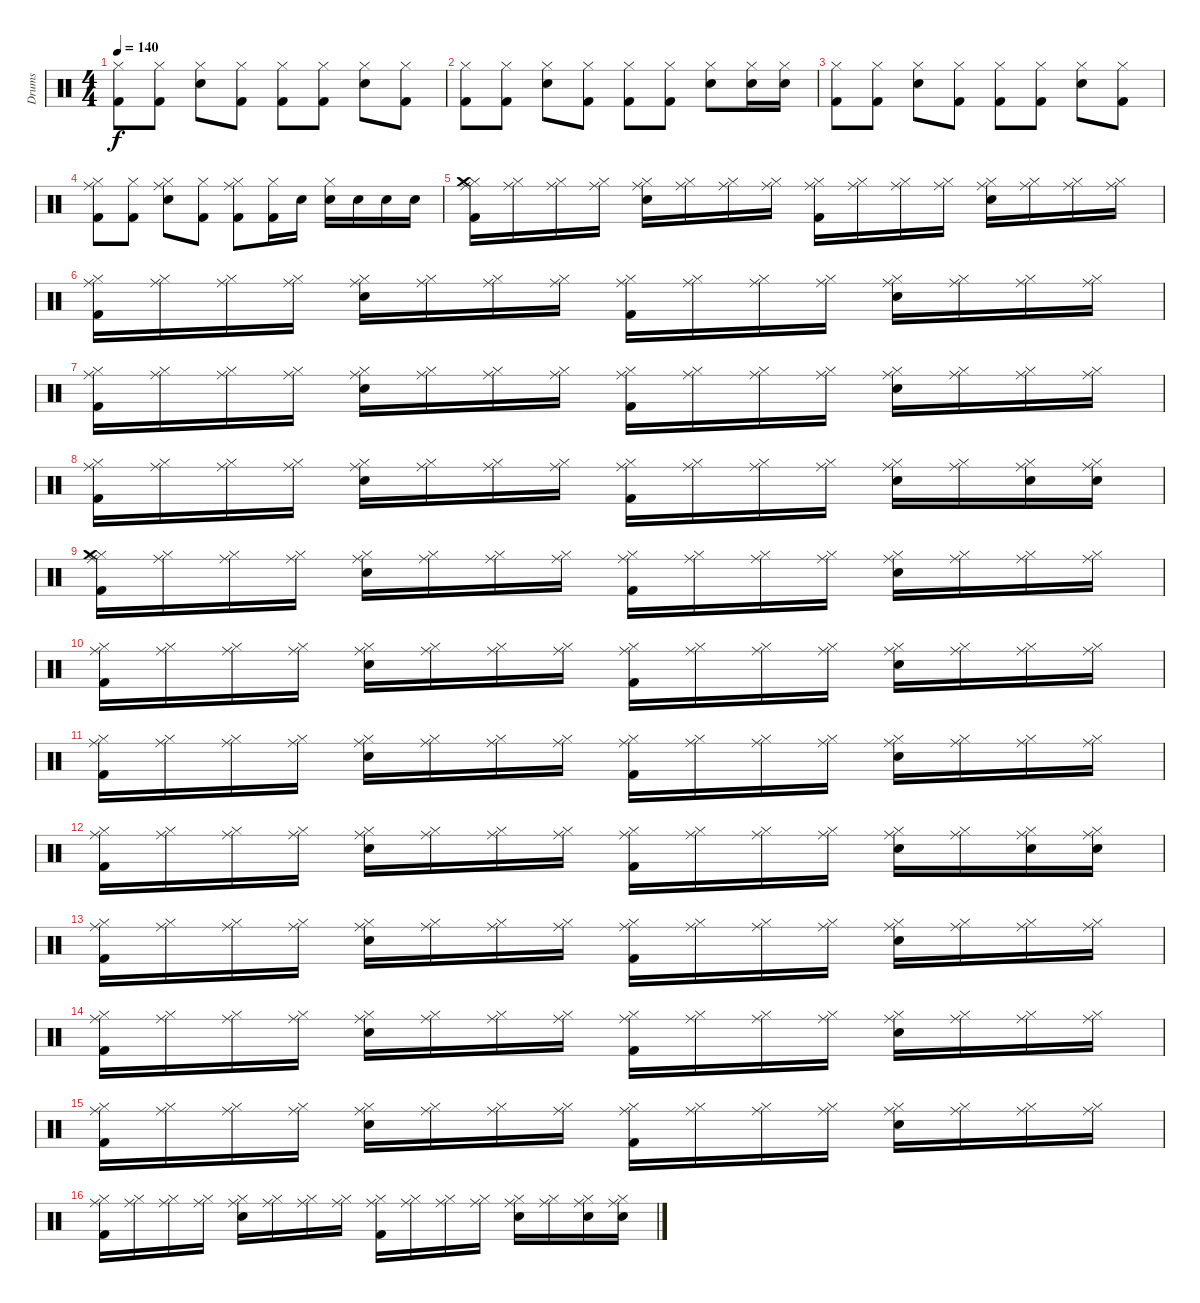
\track ("Drums" "Drums") {instrument percussion}
\staff {score}
\articulation defaults
\ts (4 4)
\tempo 140
\clef neutral
\ks c
("Hi-Hat (closed)" "Kick (hit) 2").8{dy f} ("Hi-Hat (closed)" "Kick (hit) 2").8 ("Hi-Hat (closed)" "Snare (hit) 2").8 ("Hi-Hat (closed)" "Kick (hit) 2").8 ("Hi-Hat (closed)" "Kick (hit) 2").8 ("Hi-Hat (closed)" "Kick (hit) 2").8 ("Hi-Hat (closed)" "Snare (hit) 2").8 ("Hi-Hat (closed)" "Kick (hit) 2").8 |
("Hi-Hat (closed)" "Kick (hit) 2").8 ("Hi-Hat (closed)" "Kick (hit) 2").8 ("Hi-Hat (closed)" "Snare (hit) 2").8 ("Hi-Hat (closed)" "Kick (hit) 2").8 ("Hi-Hat (closed)" "Kick (hit) 2").8 ("Hi-Hat (closed)" "Kick (hit) 2").8 ("Hi-Hat (closed)" "Snare (hit) 2").8 ("Hi-Hat (closed)" "Snare (hit) 2").16 ("Hi-Hat (closed)" "Snare (hit) 2").16 |
("Hi-Hat (closed)" "Kick (hit) 2").8 ("Hi-Hat (closed)" "Kick (hit) 2").8 ("Hi-Hat (closed)" "Snare (hit) 2").8 ("Hi-Hat (closed)" "Kick (hit) 2").8 ("Hi-Hat (closed)" "Kick (hit) 2").8 ("Hi-Hat (closed)" "Kick (hit) 2").8 ("Hi-Hat (closed)" "Snare (hit) 2").8 ("Hi-Hat (closed)" "Kick (hit) 2").8 |
("Ride (middle)" "Hi-Hat (closed)" "Kick (hit) 2").8 ("Hi-Hat (closed)" "Kick (hit) 2").8 ("Ride (middle)" "Hi-Hat (closed)" "Snare (hit) 2").8 ("Hi-Hat (closed)" "Kick (hit) 2").8 ("Ride (middle)" "Hi-Hat (closed)" "Kick (hit) 2").8 ("Hi-Hat (closed)" "Kick (hit) 2").16 "Snare (hit) 2".16 ("Hi-Hat (closed)" "Snare (hit) 2").16 "Snare (hit) 2".16 "Snare (hit) 2".16 "Snare (hit) 2".16 |
("Hi-Hat (closed)" "Crash medium (hit)" "Ride (middle)" "Kick (hit) 2").16 ("Hi-Hat (closed)" "Ride (middle)").16 ("Hi-Hat (closed)" "Ride (middle)").16 ("Hi-Hat (closed)" "Ride (middle)").16 ("Hi-Hat (closed)" "Ride (middle)" "Snare (hit) 2").16 ("Hi-Hat (closed)" "Ride (middle)").16 ("Hi-Hat (closed)" "Ride (middle)").16 ("Hi-Hat (closed)" "Ride (middle)").16 ("Hi-Hat (closed)" "Ride (middle)" "Kick (hit) 2").16 ("Hi-Hat (closed)" "Ride (middle)").16 ("Hi-Hat (closed)" "Ride (middle)").16 ("Hi-Hat (closed)" "Ride (middle)").16 ("Hi-Hat (closed)" "Ride (middle)" "Snare (hit) 2").16 ("Hi-Hat (closed)" "Ride (middle)").16 ("Hi-Hat (closed)" "Ride (middle)").16 ("Hi-Hat (closed)" "Ride (middle)").16 |
("Hi-Hat (closed)" "Ride (middle)" "Kick (hit) 2").16 ("Hi-Hat (closed)" "Ride (middle)").16 ("Hi-Hat (closed)" "Ride (middle)").16 ("Hi-Hat (closed)" "Ride (middle)").16 ("Hi-Hat (closed)" "Ride (middle)" "Snare (hit) 2").16 ("Hi-Hat (closed)" "Ride (middle)").16 ("Hi-Hat (closed)" "Ride (middle)").16 ("Hi-Hat (closed)" "Ride (middle)").16 ("Hi-Hat (closed)" "Ride (middle)" "Kick (hit) 2").16 ("Hi-Hat (closed)" "Ride (middle)").16 ("Hi-Hat (closed)" "Ride (middle)").16 ("Hi-Hat (closed)" "Ride (middle)").16 ("Hi-Hat (closed)" "Ride (middle)" "Snare (hit) 2").16 ("Hi-Hat (closed)" "Ride (middle)").16 ("Hi-Hat (closed)" "Ride (middle)").16 ("Hi-Hat (closed)" "Ride (middle)").16 |
("Hi-Hat (closed)" "Ride (middle)" "Kick (hit) 2").16 ("Hi-Hat (closed)" "Ride (middle)").16 ("Hi-Hat (closed)" "Ride (middle)").16 ("Hi-Hat (closed)" "Ride (middle)").16 ("Hi-Hat (closed)" "Ride (middle)" "Snare (hit) 2").16 ("Hi-Hat (closed)" "Ride (middle)").16 ("Hi-Hat (closed)" "Ride (middle)").16 ("Hi-Hat (closed)" "Ride (middle)").16 ("Hi-Hat (closed)" "Ride (middle)" "Kick (hit) 2").16 ("Hi-Hat (closed)" "Ride (middle)").16 ("Hi-Hat (closed)" "Ride (middle)").16 ("Hi-Hat (closed)" "Ride (middle)").16 ("Hi-Hat (closed)" "Ride (middle)" "Snare (hit) 2").16 ("Hi-Hat (closed)" "Ride (middle)").16 ("Hi-Hat (closed)" "Ride (middle)").16 ("Hi-Hat (closed)" "Ride (middle)").16 |
("Hi-Hat (closed)" "Ride (middle)" "Kick (hit) 2").16 ("Hi-Hat (closed)" "Ride (middle)").16 ("Hi-Hat (closed)" "Ride (middle)").16 ("Hi-Hat (closed)" "Ride (middle)").16 ("Hi-Hat (closed)" "Ride (middle)" "Snare (hit) 2").16 ("Hi-Hat (closed)" "Ride (middle)").16 ("Hi-Hat (closed)" "Ride (middle)").16 ("Hi-Hat (closed)" "Ride (middle)").16 ("Hi-Hat (closed)" "Ride (middle)" "Kick (hit) 2").16 ("Hi-Hat (closed)" "Ride (middle)").16 ("Hi-Hat (closed)" "Ride (middle)").16 ("Hi-Hat (closed)" "Ride (middle)").16 ("Hi-Hat (closed)" "Ride (middle)" "Snare (hit) 2").16 ("Hi-Hat (closed)" "Ride (middle)").16 ("Hi-Hat (closed)" "Ride (middle)" "Snare (hit) 2").16 ("Hi-Hat (closed)" "Ride (middle)" "Snare (hit) 2").16 |
("Hi-Hat (closed)" "Crash medium (hit)" "Ride (middle)" "Kick (hit) 2").16 ("Hi-Hat (closed)" "Ride (middle)").16 ("Hi-Hat (closed)" "Ride (middle)").16 ("Hi-Hat (closed)" "Ride (middle)").16 ("Hi-Hat (closed)" "Ride (middle)" "Snare (hit) 2").16 ("Hi-Hat (closed)" "Ride (middle)").16 ("Hi-Hat (closed)" "Ride (middle)").16 ("Hi-Hat (closed)" "Ride (middle)").16 ("Hi-Hat (closed)" "Ride (middle)" "Kick (hit) 2").16 ("Hi-Hat (closed)" "Ride (middle)").16 ("Hi-Hat (closed)" "Ride (middle)").16 ("Hi-Hat (closed)" "Ride (middle)").16 ("Hi-Hat (closed)" "Ride (middle)" "Snare (hit) 2").16 ("Hi-Hat (closed)" "Ride (middle)").16 ("Hi-Hat (closed)" "Ride (middle)").16 ("Hi-Hat (closed)" "Ride (middle)").16 |
("Hi-Hat (closed)" "Ride (middle)" "Kick (hit) 2").16 ("Hi-Hat (closed)" "Ride (middle)").16 ("Hi-Hat (closed)" "Ride (middle)").16 ("Hi-Hat (closed)" "Ride (middle)").16 ("Hi-Hat (closed)" "Ride (middle)" "Snare (hit) 2").16 ("Hi-Hat (closed)" "Ride (middle)").16 ("Hi-Hat (closed)" "Ride (middle)").16 ("Hi-Hat (closed)" "Ride (middle)").16 ("Hi-Hat (closed)" "Ride (middle)" "Kick (hit) 2").16 ("Hi-Hat (closed)" "Ride (middle)").16 ("Hi-Hat (closed)" "Ride (middle)").16 ("Hi-Hat (closed)" "Ride (middle)").16 ("Hi-Hat (closed)" "Ride (middle)" "Snare (hit) 2").16 ("Hi-Hat (closed)" "Ride (middle)").16 ("Hi-Hat (closed)" "Ride (middle)").16 ("Hi-Hat (closed)" "Ride (middle)").16 |
("Hi-Hat (closed)" "Ride (middle)" "Kick (hit) 2").16 ("Hi-Hat (closed)" "Ride (middle)").16 ("Hi-Hat (closed)" "Ride (middle)").16 ("Hi-Hat (closed)" "Ride (middle)").16 ("Hi-Hat (closed)" "Ride (middle)" "Snare (hit) 2").16 ("Hi-Hat (closed)" "Ride (middle)").16 ("Hi-Hat (closed)" "Ride (middle)").16 ("Hi-Hat (closed)" "Ride (middle)").16 ("Hi-Hat (closed)" "Ride (middle)" "Kick (hit) 2").16 ("Hi-Hat (closed)" "Ride (middle)").16 ("Hi-Hat (closed)" "Ride (middle)").16 ("Hi-Hat (closed)" "Ride (middle)").16 ("Hi-Hat (closed)" "Ride (middle)" "Snare (hit) 2").16 ("Hi-Hat (closed)" "Ride (middle)").16 ("Hi-Hat (closed)" "Ride (middle)").16 ("Hi-Hat (closed)" "Ride (middle)").16 |
("Hi-Hat (closed)" "Ride (middle)" "Kick (hit) 2").16 ("Hi-Hat (closed)" "Ride (middle)").16 ("Hi-Hat (closed)" "Ride (middle)").16 ("Hi-Hat (closed)" "Ride (middle)").16 ("Hi-Hat (closed)" "Ride (middle)" "Snare (hit) 2").16 ("Hi-Hat (closed)" "Ride (middle)").16 ("Hi-Hat (closed)" "Ride (middle)").16 ("Hi-Hat (closed)" "Ride (middle)").16 ("Hi-Hat (closed)" "Ride (middle)" "Kick (hit) 2").16 ("Hi-Hat (closed)" "Ride (middle)").16 ("Hi-Hat (closed)" "Ride (middle)").16 ("Hi-Hat (closed)" "Ride (middle)").16 ("Hi-Hat (closed)" "Ride (middle)" "Snare (hit) 2").16 ("Hi-Hat (closed)" "Ride (middle)").16 ("Hi-Hat (closed)" "Ride (middle)" "Snare (hit) 2").16 ("Hi-Hat (closed)" "Ride (middle)" "Snare (hit) 2").16 |
("Hi-Hat (closed)" "Ride (middle)" "Kick (hit) 2").16 ("Hi-Hat (closed)" "Ride (middle)").16 ("Hi-Hat (closed)" "Ride (middle)").16 ("Hi-Hat (closed)" "Ride (middle)").16 ("Hi-Hat (closed)" "Ride (middle)" "Snare (hit) 2").16 ("Hi-Hat (closed)" "Ride (middle)").16 ("Hi-Hat (closed)" "Ride (middle)").16 ("Hi-Hat (closed)" "Ride (middle)").16 ("Hi-Hat (closed)" "Ride (middle)" "Kick (hit) 2").16 ("Hi-Hat (closed)" "Ride (middle)").16 ("Hi-Hat (closed)" "Ride (middle)").16 ("Hi-Hat (closed)" "Ride (middle)").16 ("Hi-Hat (closed)" "Ride (middle)" "Snare (hit) 2").16 ("Hi-Hat (closed)" "Ride (middle)").16 ("Hi-Hat (closed)" "Ride (middle)").16 ("Hi-Hat (closed)" "Ride (middle)").16 |
("Hi-Hat (closed)" "Ride (middle)" "Kick (hit) 2").16 ("Hi-Hat (closed)" "Ride (middle)").16 ("Hi-Hat (closed)" "Ride (middle)").16 ("Hi-Hat (closed)" "Ride (middle)").16 ("Hi-Hat (closed)" "Ride (middle)" "Snare (hit) 2").16 ("Hi-Hat (closed)" "Ride (middle)").16 ("Hi-Hat (closed)" "Ride (middle)").16 ("Hi-Hat (closed)" "Ride (middle)").16 ("Hi-Hat (closed)" "Ride (middle)" "Kick (hit) 2").16 ("Hi-Hat (closed)" "Ride (middle)").16 ("Hi-Hat (closed)" "Ride (middle)").16 ("Hi-Hat (closed)" "Ride (middle)").16 ("Hi-Hat (closed)" "Ride (middle)" "Snare (hit) 2").16 ("Hi-Hat (closed)" "Ride (middle)").16 ("Hi-Hat (closed)" "Ride (middle)").16 ("Hi-Hat (closed)" "Ride (middle)").16 |
("Hi-Hat (closed)" "Ride (middle)" "Kick (hit) 2").16 ("Hi-Hat (closed)" "Ride (middle)").16 ("Hi-Hat (closed)" "Ride (middle)").16 ("Hi-Hat (closed)" "Ride (middle)").16 ("Hi-Hat (closed)" "Ride (middle)" "Snare (hit) 2").16 ("Hi-Hat (closed)" "Ride (middle)").16 ("Hi-Hat (closed)" "Ride (middle)").16 ("Hi-Hat (closed)" "Ride (middle)").16 ("Hi-Hat (closed)" "Ride (middle)" "Kick (hit) 2").16 ("Hi-Hat (closed)" "Ride (middle)").16 ("Hi-Hat (closed)" "Ride (middle)").16 ("Hi-Hat (closed)" "Ride (middle)").16 ("Hi-Hat (closed)" "Ride (middle)" "Snare (hit) 2").16 ("Hi-Hat (closed)" "Ride (middle)").16 ("Hi-Hat (closed)" "Ride (middle)").16 ("Hi-Hat (closed)" "Ride (middle)").16 |
("Hi-Hat (closed)" "Ride (middle)" "Kick (hit) 2").16 ("Hi-Hat (closed)" "Ride (middle)").16 ("Hi-Hat (closed)" "Ride (middle)").16 ("Hi-Hat (closed)" "Ride (middle)").16 ("Hi-Hat (closed)" "Ride (middle)" "Snare (hit) 2").16 ("Hi-Hat (closed)" "Ride (middle)").16 ("Hi-Hat (closed)" "Ride (middle)").16 ("Hi-Hat (closed)" "Ride (middle)").16 ("Hi-Hat (closed)" "Ride (middle)" "Kick (hit) 2").16 ("Hi-Hat (closed)" "Ride (middle)").16 ("Hi-Hat (closed)" "Ride (middle)").16 ("Hi-Hat (closed)" "Ride (middle)").16 ("Hi-Hat (closed)" "Ride (middle)" "Snare (hit) 2").16 ("Hi-Hat (closed)" "Ride (middle)").16 ("Hi-Hat (closed)" "Ride (middle)" "Snare (hit) 2").16 ("Hi-Hat (closed)" "Ride (middle)" "Snare (hit) 2").16
